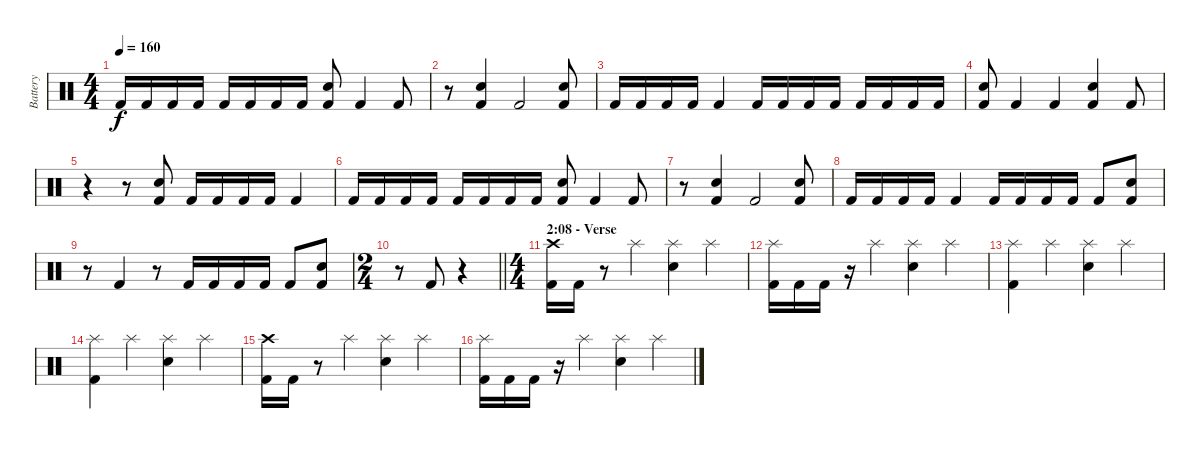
\track ("Battery" "Battery") {instrument percussion}
\staff {score}
\articulation defaults
\ts (4 4)
\tempo 160
\clef neutral
\ks c "Kick (hit) 2".16{dy f} "Kick (hit) 2".16 "Kick (hit) 2".16 "Kick (hit) 2".16 "Kick (hit) 2".16 "Kick (hit) 2".16 "Kick (hit) 2".16 "Kick (hit) 2".16
("Electric Snare (hit)" "Kick (hit) 2").8 "Kick (hit) 2".4 "Kick (hit) 2".8 |
r.8 ("Electric Snare (hit)" "Kick (hit) 2").4 "Kick (hit) 2".2 ("Electric Snare (hit)" "Kick (hit) 2").8 |
"Kick (hit) 2".16 "Kick (hit) 2".16 "Kick (hit) 2".16 "Kick (hit) 2".16 "Kick (hit) 2".4 "Kick (hit) 2".16 "Kick (hit) 2".16 "Kick (hit) 2".16 "Kick (hit) 2".16 "Kick (hit) 2".16 "Kick (hit) 2".16 "Kick (hit) 2".16 "Kick (hit) 2".16 |
("Electric Snare (hit)" "Kick (hit) 2").8 "Kick (hit) 2".4 "Kick (hit) 2".4 ("Electric Snare (hit)" "Kick (hit) 2").4 "Kick (hit) 2".8 |
r.4 r.8 ("Electric Snare (hit)" "Kick (hit) 2").8 "Kick (hit) 2".16 "Kick (hit) 2".16 "Kick (hit) 2".16 "Kick (hit) 2".16 "Kick (hit) 2".4 |
"Kick (hit) 2".16 "Kick (hit) 2".16 "Kick (hit) 2".16 "Kick (hit) 2".16 "Kick (hit) 2".16 "Kick (hit) 2".16 "Kick (hit) 2".16 "Kick (hit) 2".16 ("Electric Snare (hit)" "Kick (hit) 2").8 "Kick (hit) 2".4 "Kick (hit) 2".8 |
r.8 ("Electric Snare (hit)" "Kick (hit) 2").4 "Kick (hit) 2".2 ("Electric Snare (hit)" "Kick (hit) 2").8 |
"Kick (hit) 2".16 "Kick (hit) 2".16 "Kick (hit) 2".16 "Kick (hit) 2".16 "Kick (hit) 2".4 "Kick (hit) 2".16 "Kick (hit) 2".16 "Kick (hit) 2".16 "Kick (hit) 2".16 "Kick (hit) 2".8 ("Electric Snare (hit)" "Kick (hit) 2").8 |
r.8 "Kick (hit) 2".4 r.8 "Kick (hit) 2".16 "Kick (hit) 2".16 "Kick (hit) 2".16 "Kick (hit) 2".16 "Kick (hit) 2".8 ("Electric Snare (hit)" "Kick (hit) 2").8 |
\ts (2 4)
\barLineRight lightlight
r.8 "Kick (hit) 2".8 r.4 |
\ts (4 4)
\section ("" "2:08 - Verse")
("Crash high (hit)" "Kick (hit) 2").16 "Kick (hit) 2".16 r.8 "Splash (hit)".4 ("Splash (hit)" "Electric Snare (hit)").4 "Splash (hit)".4 |
("Splash (hit)" "Kick (hit) 2").16 "Kick (hit) 2".16 "Kick (hit) 2".16 r.16 "Splash (hit)".4 ("Splash (hit)" "Electric Snare (hit)").4 "Splash (hit)".4 |
("Splash (hit)" "Kick (hit) 2").4 "Splash (hit)".4 ("Splash (hit)" "Electric Snare (hit)").4 "Splash (hit)".4 |
("Splash (hit)" "Kick (hit) 2").4 "Splash (hit)".4 ("Splash (hit)" "Electric Snare (hit)").4 "Splash (hit)".4 |
("Crash high (hit)" "Kick (hit) 2").16 "Kick (hit) 2".16 r.8 "Splash (hit)".4 ("Splash (hit)" "Electric Snare (hit)").4 "Splash (hit)".4 |
("Splash (hit)" "Kick (hit) 2").16 "Kick (hit) 2".16 "Kick (hit) 2".16 r.16 "Splash (hit)".4 ("Splash (hit)" "Electric Snare (hit)").4 "Splash (hit)".4
